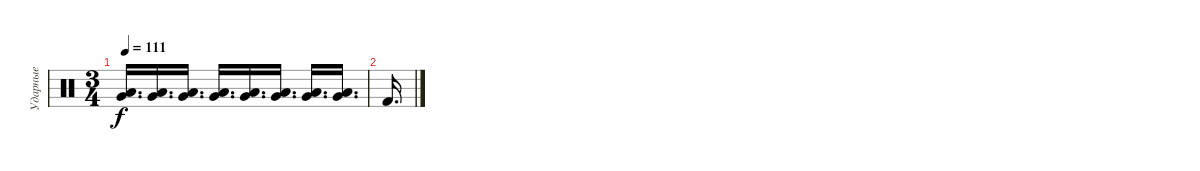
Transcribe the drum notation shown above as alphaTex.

\track ("Ударные" "Ударные") {instrument percussion}
\staff {score}
\articulation defaults
\ts (3 4)
\tempo 111
\clef neutral
\ks c
("Low Floor Tom (hit)" "Very Low Tom (hit)").16{d dy f} ("Low Floor Tom (hit)" "Very Low Tom (hit)").16{d} ("Low Floor Tom (hit)" "Very Low Tom (hit)").16{d} ("Low Floor Tom (hit)" "Very Low Tom (hit)").16{d} ("Low Floor Tom (hit)" "Very Low Tom (hit)").16{d} ("Low Floor Tom (hit)" "Very Low Tom (hit)").16{d} ("Low Floor Tom (hit)" "Very Low Tom (hit)").16{d} ("Low Floor Tom (hit)" "Very Low Tom (hit)").16{d} |
"Kick (hit) 2".16{d}
